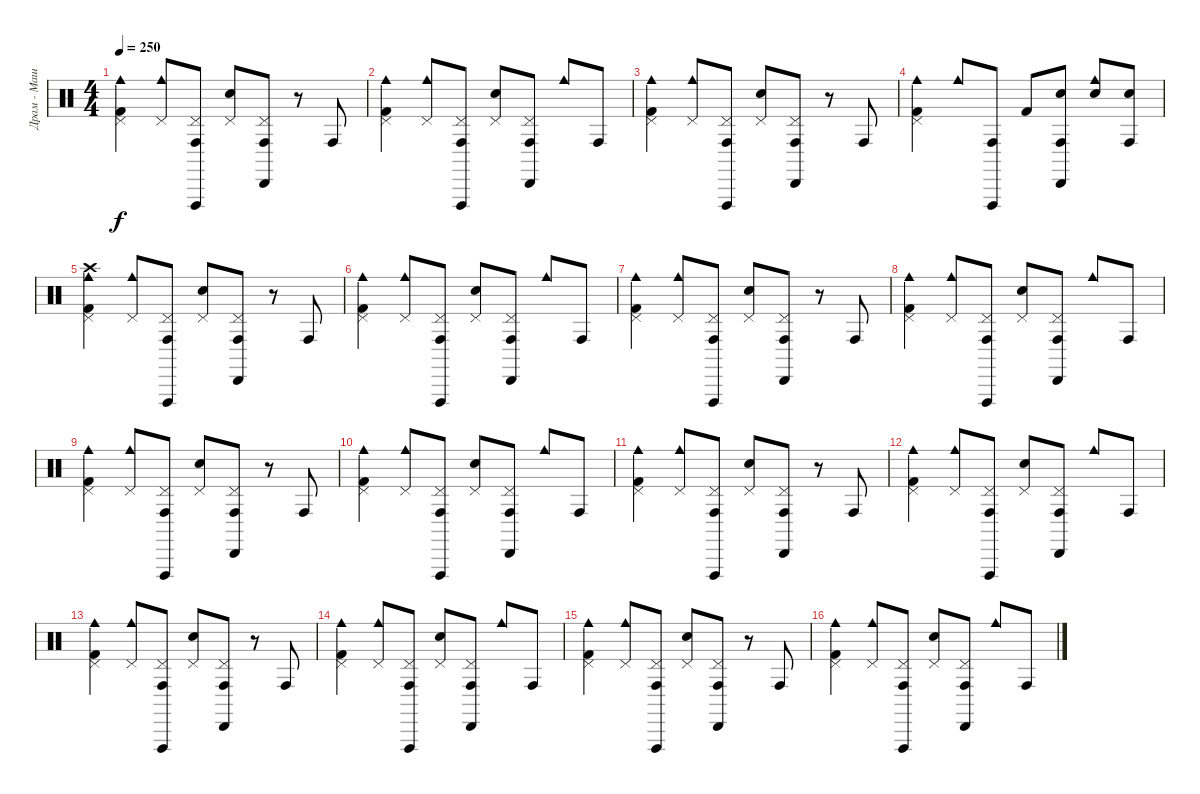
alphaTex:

\track ("Драм - Машина" "Драм - Маш") {instrument percussion}
\staff {score}
\articulation defaults
\ts (4 4)
\tempo 250
\clef neutral
\ks c
("Cowbell medium (hit)" "Pedal Hi-Hat (hit)" "Kick (hit) 2").4{dy f} ("Cowbell medium (hit)" "Pedal Hi-Hat (hit)").8 ("Conga high (hit)" "Vibraslap (hit)" "Pedal Hi-Hat (hit)").8 ("Pedal Hi-Hat (hit)" "Snare (hit) 2").8 ("Cabasa (hit)" "Conga high (hit)" "Pedal Hi-Hat (hit)").8 r.8 "Conga high (hit)".8 |
("Cowbell medium (hit)" "Pedal Hi-Hat (hit)" "Kick (hit) 2").4 ("Cowbell medium (hit)" "Pedal Hi-Hat (hit)").8 ("Conga high (hit)" "Vibraslap (hit)" "Pedal Hi-Hat (hit)").8 ("Pedal Hi-Hat (hit)" "Snare (hit) 2").8 ("Cabasa (hit)" "Conga high (hit)" "Pedal Hi-Hat (hit)").8 "Cowbell medium (hit)".8 "Conga high (hit)".8 |
("Cowbell medium (hit)" "Pedal Hi-Hat (hit)" "Kick (hit) 2").4 ("Cowbell medium (hit)" "Pedal Hi-Hat (hit)").8 ("Conga high (hit)" "Vibraslap (hit)" "Pedal Hi-Hat (hit)").8 ("Pedal Hi-Hat (hit)" "Snare (hit) 2").8 ("Cabasa (hit)" "Conga high (hit)" "Pedal Hi-Hat (hit)").8 r.8 "Conga high (hit)".8 |
("Cowbell medium (hit)" "Pedal Hi-Hat (hit)" "Kick (hit) 2").4 "Cowbell medium (hit)".8 ("Conga high (hit)" "Vibraslap (hit)").8 "Kick (hit) 2".8 ("Cabasa (hit)" "Conga high (hit)" "Snare (hit) 2").8 ("Cowbell medium (hit)" "Snare (hit) 2").8 ("Conga high (hit)" "Snare (hit) 2").8 |
("Crash high (hit)" "Pedal Hi-Hat (hit)" "Kick (hit) 2" "Cowbell medium (hit)").4 ("Pedal Hi-Hat (hit)" "Cowbell medium (hit)").8 ("Pedal Hi-Hat (hit)" "Conga high (hit)" "Vibraslap (hit)").8 ("Pedal Hi-Hat (hit)" "Snare (hit) 2").8 ("Pedal Hi-Hat (hit)" "Cabasa (hit)" "Conga high (hit)").8 r.8 "Conga high (hit)".8 |
("Pedal Hi-Hat (hit)" "Kick (hit) 2" "Cowbell medium (hit)").4 ("Pedal Hi-Hat (hit)" "Cowbell medium (hit)").8 ("Pedal Hi-Hat (hit)" "Conga high (hit)" "Vibraslap (hit)").8 ("Pedal Hi-Hat (hit)" "Snare (hit) 2").8 ("Pedal Hi-Hat (hit)" "Cabasa (hit)" "Conga high (hit)").8 "Cowbell medium (hit)".8 "Conga high (hit)".8 |
("Pedal Hi-Hat (hit)" "Kick (hit) 2" "Cowbell medium (hit)").4 ("Pedal Hi-Hat (hit)" "Cowbell medium (hit)").8 ("Pedal Hi-Hat (hit)" "Conga high (hit)" "Vibraslap (hit)").8 ("Pedal Hi-Hat (hit)" "Snare (hit) 2").8 ("Pedal Hi-Hat (hit)" "Cabasa (hit)" "Conga high (hit)").8 r.8 "Conga high (hit)".8 |
("Pedal Hi-Hat (hit)" "Kick (hit) 2" "Cowbell medium (hit)").4 ("Pedal Hi-Hat (hit)" "Cowbell medium (hit)").8 ("Pedal Hi-Hat (hit)" "Conga high (hit)" "Vibraslap (hit)").8 ("Pedal Hi-Hat (hit)" "Snare (hit) 2").8 ("Pedal Hi-Hat (hit)" "Cabasa (hit)" "Conga high (hit)").8 "Cowbell medium (hit)".8 "Conga high (hit)".8 |
("Cowbell medium (hit)" "Pedal Hi-Hat (hit)" "Kick (hit) 2").4 ("Cowbell medium (hit)" "Pedal Hi-Hat (hit)").8 ("Conga high (hit)" "Vibraslap (hit)" "Pedal Hi-Hat (hit)").8 ("Pedal Hi-Hat (hit)" "Snare (hit) 2").8 ("Cabasa (hit)" "Conga high (hit)" "Pedal Hi-Hat (hit)").8 r.8 "Conga high (hit)".8 |
("Cowbell medium (hit)" "Pedal Hi-Hat (hit)" "Kick (hit) 2").4 ("Cowbell medium (hit)" "Pedal Hi-Hat (hit)").8 ("Conga high (hit)" "Vibraslap (hit)" "Pedal Hi-Hat (hit)").8 ("Pedal Hi-Hat (hit)" "Snare (hit) 2").8 ("Cabasa (hit)" "Conga high (hit)" "Pedal Hi-Hat (hit)").8 "Cowbell medium (hit)".8 "Conga high (hit)".8 |
("Cowbell medium (hit)" "Pedal Hi-Hat (hit)" "Kick (hit) 2").4 ("Cowbell medium (hit)" "Pedal Hi-Hat (hit)").8 ("Conga high (hit)" "Vibraslap (hit)" "Pedal Hi-Hat (hit)").8 ("Pedal Hi-Hat (hit)" "Snare (hit) 2").8 ("Cabasa (hit)" "Conga high (hit)" "Pedal Hi-Hat (hit)").8 r.8 "Conga high (hit)".8 |
("Cowbell medium (hit)" "Pedal Hi-Hat (hit)" "Kick (hit) 2").4 ("Cowbell medium (hit)" "Pedal Hi-Hat (hit)").8 ("Conga high (hit)" "Vibraslap (hit)" "Pedal Hi-Hat (hit)").8 ("Pedal Hi-Hat (hit)" "Snare (hit) 2").8 ("Cabasa (hit)" "Conga high (hit)" "Pedal Hi-Hat (hit)").8 "Cowbell medium (hit)".8 "Conga high (hit)".8 |
("Cowbell medium (hit)" "Pedal Hi-Hat (hit)" "Kick (hit) 2").4 ("Cowbell medium (hit)" "Pedal Hi-Hat (hit)").8 ("Conga high (hit)" "Vibraslap (hit)" "Pedal Hi-Hat (hit)").8 ("Pedal Hi-Hat (hit)" "Snare (hit) 2").8 ("Cabasa (hit)" "Conga high (hit)" "Pedal Hi-Hat (hit)").8 r.8 "Conga high (hit)".8 |
("Cowbell medium (hit)" "Pedal Hi-Hat (hit)" "Kick (hit) 2").4 ("Cowbell medium (hit)" "Pedal Hi-Hat (hit)").8 ("Conga high (hit)" "Vibraslap (hit)" "Pedal Hi-Hat (hit)").8 ("Pedal Hi-Hat (hit)" "Snare (hit) 2").8 ("Cabasa (hit)" "Conga high (hit)" "Pedal Hi-Hat (hit)").8 "Cowbell medium (hit)".8 "Conga high (hit)".8 |
("Cowbell medium (hit)" "Pedal Hi-Hat (hit)" "Kick (hit) 2").4 ("Cowbell medium (hit)" "Pedal Hi-Hat (hit)").8 ("Conga high (hit)" "Vibraslap (hit)" "Pedal Hi-Hat (hit)").8 ("Pedal Hi-Hat (hit)" "Snare (hit) 2").8 ("Cabasa (hit)" "Conga high (hit)" "Pedal Hi-Hat (hit)").8 r.8 "Conga high (hit)".8 |
("Cowbell medium (hit)" "Pedal Hi-Hat (hit)" "Kick (hit) 2").4 ("Cowbell medium (hit)" "Pedal Hi-Hat (hit)").8 ("Conga high (hit)" "Vibraslap (hit)" "Pedal Hi-Hat (hit)").8 ("Pedal Hi-Hat (hit)" "Snare (hit) 2").8 ("Cabasa (hit)" "Conga high (hit)" "Pedal Hi-Hat (hit)").8 "Cowbell medium (hit)".8 "Conga high (hit)".8
